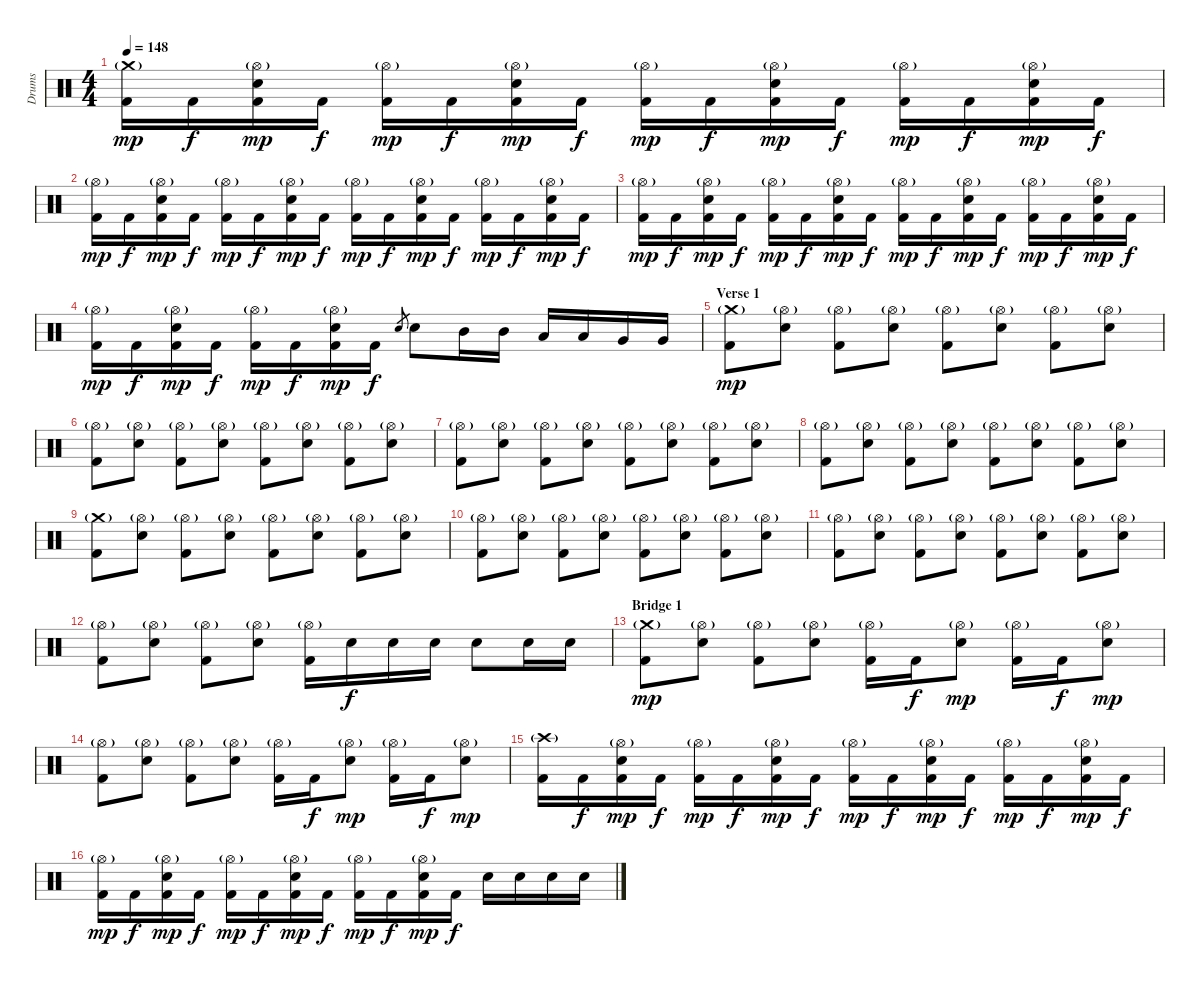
\track ("Drums" "Drums") {instrument percussion}
\staff {score}
\articulation defaults
\ts (4 4)
\tempo 148
\clef neutral
\ks c
("Crash medium (hit)"{g} "Kick (hit) 2").16{dy mp} "Kick (hit) 2".16{dy f} ("Hi-Hat (open)"{g} "Snare (hit) 2" "Kick (hit) 2").16{dy mp} "Kick (hit) 2".16{dy f} ("Hi-Hat (open)"{g} "Kick (hit) 2").16{dy mp} "Kick (hit) 2".16{dy f} ("Hi-Hat (open)"{g} "Snare (hit) 2" "Kick (hit) 2").16{dy mp} "Kick (hit) 2".16{dy f} ("Hi-Hat (open)"{g} "Kick (hit) 2").16{dy mp} "Kick (hit) 2".16{dy f} ("Hi-Hat (open)"{g} "Snare (hit) 2" "Kick (hit) 2").16{dy mp} "Kick (hit) 2".16{dy f} ("Hi-Hat (open)"{g} "Kick (hit) 2").16{dy mp} "Kick (hit) 2".16{dy f} ("Hi-Hat (open)"{g} "Snare (hit) 2" "Kick (hit) 2").16{dy mp} "Kick (hit) 2".16{dy f} |
("Hi-Hat (open)"{g} "Kick (hit) 2").16{dy mp} "Kick (hit) 2".16{dy f} ("Hi-Hat (open)"{g} "Snare (hit) 2" "Kick (hit) 2").16{dy mp} "Kick (hit) 2".16{dy f} ("Hi-Hat (open)"{g} "Kick (hit) 2").16{dy mp} "Kick (hit) 2".16{dy f} ("Hi-Hat (open)"{g} "Snare (hit) 2" "Kick (hit) 2").16{dy mp} "Kick (hit) 2".16{dy f} ("Hi-Hat (open)"{g} "Kick (hit) 2").16{dy mp} "Kick (hit) 2".16{dy f} ("Hi-Hat (open)"{g} "Snare (hit) 2" "Kick (hit) 2").16{dy mp} "Kick (hit) 2".16{dy f} ("Hi-Hat (open)"{g} "Kick (hit) 2").16{dy mp} "Kick (hit) 2".16{dy f} ("Hi-Hat (open)"{g} "Snare (hit) 2" "Kick (hit) 2").16{dy mp} "Kick (hit) 2".16{dy f} |
("Hi-Hat (open)"{g} "Kick (hit) 2").16{dy mp} "Kick (hit) 2".16{dy f} ("Hi-Hat (open)"{g} "Snare (hit) 2" "Kick (hit) 2").16{dy mp} "Kick (hit) 2".16{dy f} ("Hi-Hat (open)"{g} "Kick (hit) 2").16{dy mp} "Kick (hit) 2".16{dy f} ("Hi-Hat (open)"{g} "Snare (hit) 2" "Kick (hit) 2").16{dy mp} "Kick (hit) 2".16{dy f} ("Hi-Hat (open)"{g} "Kick (hit) 2").16{dy mp} "Kick (hit) 2".16{dy f} ("Hi-Hat (open)"{g} "Snare (hit) 2" "Kick (hit) 2").16{dy mp} "Kick (hit) 2".16{dy f} ("Hi-Hat (open)"{g} "Kick (hit) 2").16{dy mp} "Kick (hit) 2".16{dy f} ("Hi-Hat (open)"{g} "Snare (hit) 2" "Kick (hit) 2").16{dy mp} "Kick (hit) 2".16{dy f} |
("Hi-Hat (open)"{g} "Kick (hit) 2").16{dy mp} "Kick (hit) 2".16{dy f} ("Hi-Hat (open)"{g} "Snare (hit) 2" "Kick (hit) 2").16{dy mp} "Kick (hit) 2".16{dy f} ("Hi-Hat (open)"{g} "Kick (hit) 2").16{dy mp} "Kick (hit) 2".16{dy f} ("Hi-Hat (open)"{g} "Snare (hit) 2" "Kick (hit) 2").16{dy mp} "Kick (hit) 2".16{dy f} "Snare (hit) 2".8{gr} "Snare (hit) 2".8 "Mid Tom (hit)".16 "Mid Tom (hit)".16 "Low Tom (hit)".16 "Low Tom (hit)".16 "Very Low Tom (hit)".16 "Very Low Tom (hit)".16 |
\section ("" "Verse 1")
("Crash medium (hit)"{g} "Kick (hit) 2").8{dy mp} ("Hi-Hat (open)"{g} "Snare (hit) 2").8 ("Hi-Hat (open)"{g} "Kick (hit) 2").8 ("Hi-Hat (open)"{g} "Snare (hit) 2").8 ("Hi-Hat (open)"{g} "Kick (hit) 2").8 ("Hi-Hat (open)"{g} "Snare (hit) 2").8 ("Hi-Hat (open)"{g} "Kick (hit) 2").8 ("Hi-Hat (open)"{g} "Snare (hit) 2").8 |
("Hi-Hat (open)"{g} "Kick (hit) 2").8 ("Hi-Hat (open)"{g} "Snare (hit) 2").8 ("Hi-Hat (open)"{g} "Kick (hit) 2").8 ("Hi-Hat (open)"{g} "Snare (hit) 2").8 ("Hi-Hat (open)"{g} "Kick (hit) 2").8 ("Hi-Hat (open)"{g} "Snare (hit) 2").8 ("Hi-Hat (open)"{g} "Kick (hit) 2").8 ("Hi-Hat (open)"{g} "Snare (hit) 2").8 |
("Hi-Hat (open)"{g} "Kick (hit) 2").8 ("Hi-Hat (open)"{g} "Snare (hit) 2").8 ("Hi-Hat (open)"{g} "Kick (hit) 2").8 ("Hi-Hat (open)"{g} "Snare (hit) 2").8 ("Hi-Hat (open)"{g} "Kick (hit) 2").8 ("Hi-Hat (open)"{g} "Snare (hit) 2").8 ("Hi-Hat (open)"{g} "Kick (hit) 2").8 ("Hi-Hat (open)"{g} "Snare (hit) 2").8 |
("Hi-Hat (open)"{g} "Kick (hit) 2").8 ("Hi-Hat (open)"{g} "Snare (hit) 2").8 ("Hi-Hat (open)"{g} "Kick (hit) 2").8 ("Hi-Hat (open)"{g} "Snare (hit) 2").8 ("Hi-Hat (open)"{g} "Kick (hit) 2").8 ("Hi-Hat (open)"{g} "Snare (hit) 2").8 ("Hi-Hat (open)"{g} "Kick (hit) 2").8 ("Hi-Hat (open)"{g} "Snare (hit) 2").8 |
("Crash medium (hit)"{g} "Kick (hit) 2").8 ("Hi-Hat (open)"{g} "Snare (hit) 2").8 ("Hi-Hat (open)"{g} "Kick (hit) 2").8 ("Hi-Hat (open)"{g} "Snare (hit) 2").8 ("Hi-Hat (open)"{g} "Kick (hit) 2").8 ("Hi-Hat (open)"{g} "Snare (hit) 2").8 ("Hi-Hat (open)"{g} "Kick (hit) 2").8 ("Hi-Hat (open)"{g} "Snare (hit) 2").8 |
("Hi-Hat (open)"{g} "Kick (hit) 2").8 ("Hi-Hat (open)"{g} "Snare (hit) 2").8 ("Hi-Hat (open)"{g} "Kick (hit) 2").8 ("Hi-Hat (open)"{g} "Snare (hit) 2").8 ("Hi-Hat (open)"{g} "Kick (hit) 2").8 ("Hi-Hat (open)"{g} "Snare (hit) 2").8 ("Hi-Hat (open)"{g} "Kick (hit) 2").8 ("Hi-Hat (open)"{g} "Snare (hit) 2").8 |
("Hi-Hat (open)"{g} "Kick (hit) 2").8 ("Hi-Hat (open)"{g} "Snare (hit) 2").8 ("Hi-Hat (open)"{g} "Kick (hit) 2").8 ("Hi-Hat (open)"{g} "Snare (hit) 2").8 ("Hi-Hat (open)"{g} "Kick (hit) 2").8 ("Hi-Hat (open)"{g} "Snare (hit) 2").8 ("Hi-Hat (open)"{g} "Kick (hit) 2").8 ("Hi-Hat (open)"{g} "Snare (hit) 2").8 |
("Hi-Hat (open)"{g} "Kick (hit) 2").8 ("Hi-Hat (open)"{g} "Snare (hit) 2").8 ("Hi-Hat (open)"{g} "Kick (hit) 2").8 ("Hi-Hat (open)"{g} "Snare (hit) 2").8 ("Hi-Hat (open)"{g} "Kick (hit) 2").16 "Snare (hit) 2".16{dy f} "Snare (hit) 2".16 "Snare (hit) 2".16 "Snare (hit) 2".8 "Snare (hit) 2".16 "Snare (hit) 2".16 |
\section ("" "Bridge 1")
("Crash medium (hit)"{g} "Kick (hit) 2").8{dy mp} ("Hi-Hat (open)"{g} "Snare (hit) 2").8 ("Hi-Hat (open)"{g} "Kick (hit) 2").8 ("Hi-Hat (open)"{g} "Snare (hit) 2").8 ("Hi-Hat (open)"{g} "Kick (hit) 2").16 "Kick (hit) 2".16{dy f} ("Hi-Hat (open)"{g} "Snare (hit) 2").8{dy mp} ("Hi-Hat (open)"{g} "Kick (hit) 2").16 "Kick (hit) 2".16{dy f} ("Hi-Hat (open)"{g} "Snare (hit) 2").8{dy mp} |
("Hi-Hat (open)"{g} "Kick (hit) 2").8 ("Hi-Hat (open)"{g} "Snare (hit) 2").8 ("Hi-Hat (open)"{g} "Kick (hit) 2").8 ("Hi-Hat (open)"{g} "Snare (hit) 2").8 ("Hi-Hat (open)"{g} "Kick (hit) 2").16 "Kick (hit) 2".16{dy f} ("Hi-Hat (open)"{g} "Snare (hit) 2").8{dy mp} ("Hi-Hat (open)"{g} "Kick (hit) 2").16 "Kick (hit) 2".16{dy f} ("Hi-Hat (open)"{g} "Snare (hit) 2").8{dy mp} |
("Crash high (hit)"{g} "Kick (hit) 2").16 "Kick (hit) 2".16{dy f} ("Hi-Hat (open)"{g} "Snare (hit) 2" "Kick (hit) 2").16{dy mp} "Kick (hit) 2".16{dy f} ("Hi-Hat (open)"{g} "Kick (hit) 2").16{dy mp} "Kick (hit) 2".16{dy f} ("Hi-Hat (open)"{g} "Snare (hit) 2" "Kick (hit) 2").16{dy mp} "Kick (hit) 2".16{dy f} ("Hi-Hat (open)"{g} "Kick (hit) 2").16{dy mp} "Kick (hit) 2".16{dy f} ("Hi-Hat (open)"{g} "Snare (hit) 2" "Kick (hit) 2").16{dy mp} "Kick (hit) 2".16{dy f} ("Hi-Hat (open)"{g} "Kick (hit) 2").16{dy mp} "Kick (hit) 2".16{dy f} ("Hi-Hat (open)"{g} "Snare (hit) 2" "Kick (hit) 2").16{dy mp} "Kick (hit) 2".16{dy f} |
("Hi-Hat (open)"{g} "Kick (hit) 2").16{dy mp} "Kick (hit) 2".16{dy f} ("Hi-Hat (open)"{g} "Snare (hit) 2" "Kick (hit) 2").16{dy mp} "Kick (hit) 2".16{dy f} ("Hi-Hat (open)"{g} "Kick (hit) 2").16{dy mp} "Kick (hit) 2".16{dy f} ("Hi-Hat (open)"{g} "Snare (hit) 2" "Kick (hit) 2").16{dy mp} "Kick (hit) 2".16{dy f} ("Hi-Hat (open)"{g} "Kick (hit) 2").16{dy mp} "Kick (hit) 2".16{dy f} ("Hi-Hat (open)"{g} "Snare (hit) 2" "Kick (hit) 2").16{dy mp} "Kick (hit) 2".16{dy f} "Snare (hit) 2".16 "Snare (hit) 2".16 "Snare (hit) 2".16 "Snare (hit) 2".16
